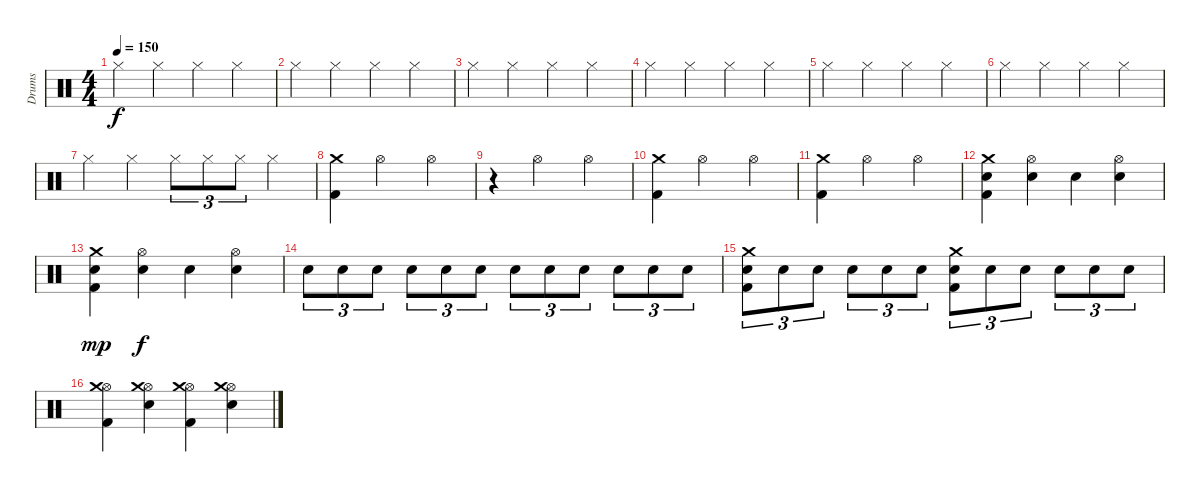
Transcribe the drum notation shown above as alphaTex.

\track ("Drums" "Drums") {instrument percussion}
\staff {score}
\articulation defaults
\ts (4 4)
\tempo 150
\clef neutral
\ks c "Hi-Hat (closed)".4{dy f} "Hi-Hat (closed)".4 "Hi-Hat (closed)".4 "Hi-Hat (closed)".4
|
"Hi-Hat (closed)".4 "Hi-Hat (closed)".4 "Hi-Hat (closed)".4 "Hi-Hat (closed)".4 |
"Hi-Hat (closed)".4 "Hi-Hat (closed)".4 "Hi-Hat (closed)".4 "Hi-Hat (closed)".4 |
"Hi-Hat (closed)".4 "Hi-Hat (closed)".4 "Hi-Hat (closed)".4 "Hi-Hat (closed)".4 |
"Hi-Hat (closed)".4 "Hi-Hat (closed)".4 "Hi-Hat (closed)".4 "Hi-Hat (closed)".4 |
"Hi-Hat (closed)".4 "Hi-Hat (closed)".4 "Hi-Hat (closed)".4 "Hi-Hat (closed)".4 |
"Hi-Hat (closed)".4 "Hi-Hat (closed)".4 "Hi-Hat (closed)".8{tu (3 2)} "Hi-Hat (closed)".8{tu (3 2)} "Hi-Hat (closed)".8{tu (3 2)} "Hi-Hat (closed)".4 |
("Crash medium (hit)" "Kick (hit) 2").4 "Hi-Hat (open)".2 "Hi-Hat (open)".4 |
r.4 "Hi-Hat (open)".2 "Hi-Hat (open)".4 |
("Crash medium (hit)" "Kick (hit) 2").4 "Hi-Hat (open)".2 "Hi-Hat (open)".4 |
("Crash medium (hit)" "Kick (hit) 2").4 "Hi-Hat (open)".2 "Hi-Hat (open)".4 |
("Crash medium (hit)" "Snare (hit) 2" "Kick (hit) 2").4{volume 13} ("Hi-Hat (open)" "Snare (hit) 2").4 "Snare (hit) 2".4 ("Hi-Hat (open)" "Snare (hit) 2").4 |
("Crash medium (hit)" "Snare (hit) 2" "Kick (hit) 2").4{dy mp} ("Hi-Hat (open)" "Snare (hit) 2").4{dy f} "Snare (hit) 2".4 ("Hi-Hat (open)" "Snare (hit) 2").4 |
"Snare (hit) 2".8{tu (3 2)} "Snare (hit) 2".8{tu (3 2)} "Snare (hit) 2".8{tu (3 2)} "Snare (hit) 2".8{tu (3 2)} "Snare (hit) 2".8{tu (3 2)} "Snare (hit) 2".8{tu (3 2)} "Snare (hit) 2".8{tu (3 2)} "Snare (hit) 2".8{tu (3 2)} "Snare (hit) 2".8{tu (3 2)} "Snare (hit) 2".8{tu (3 2)} "Snare (hit) 2".8{tu (3 2)} "Snare (hit) 2".8{tu (3 2)} |
("Crash medium (hit)" "Snare (hit) 2" "Kick (hit) 2").8{tu (3 2)} "Snare (hit) 2".8{tu (3 2)} "Snare (hit) 2".8{tu (3 2)} "Snare (hit) 2".8{tu (3 2)} "Snare (hit) 2".8{tu (3 2)} "Snare (hit) 2".8{tu (3 2)} ("Crash medium (hit)" "Snare (hit) 2" "Kick (hit) 2").8{tu (3 2)} "Snare (hit) 2".8{tu (3 2)} "Snare (hit) 2".8{tu (3 2)} "Snare (hit) 2".8{tu (3 2)} "Snare (hit) 2".8{tu (3 2)} "Snare (hit) 2".8{tu (3 2)} |
("Hi-Hat (open)" "Crash medium (hit)" "Kick (hit) 2").4 ("Hi-Hat (open)" "Crash medium (hit)" "Snare (hit) 2").4 ("Hi-Hat (open)" "Crash medium (hit)" "Kick (hit) 2").4 ("Hi-Hat (open)" "Crash medium (hit)" "Snare (hit) 2").4
